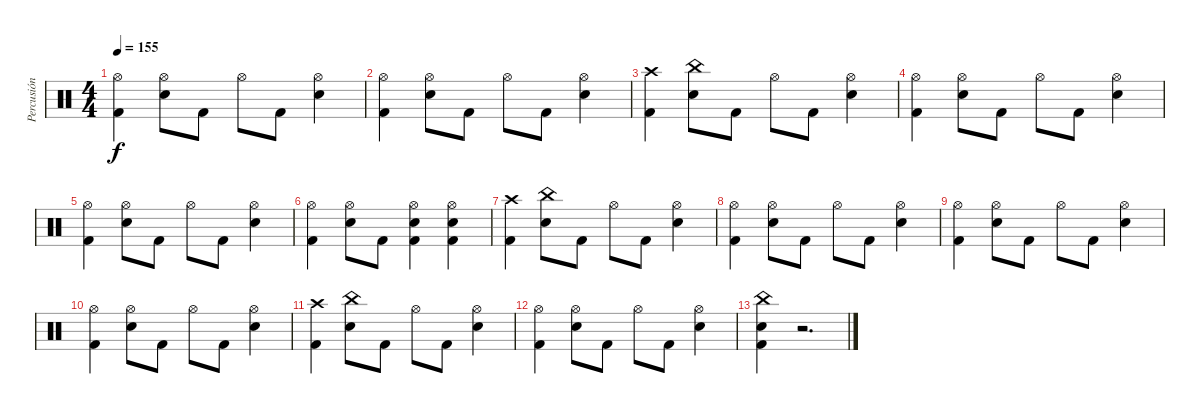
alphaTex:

\track ("Percusión" "Percusión") {instrument percussion}
\staff {score}
\articulation defaults
\ts (4 4)
\tempo 155
\clef neutral
\ks c
("Hi-Hat (open)" "Kick (hit) 2").4{dy f} ("Hi-Hat (open)" "Electric Snare (hit)").8 "Kick (hit) 2".8 "Hi-Hat (open)".8 "Kick (hit) 2".8 ("Hi-Hat (open)" "Electric Snare (hit)").4 |
("Hi-Hat (open)" "Kick (hit) 2").4 ("Hi-Hat (open)" "Electric Snare (hit)").8 "Kick (hit) 2".8 "Hi-Hat (open)".8 "Kick (hit) 2".8 ("Hi-Hat (open)" "Electric Snare (hit)").4 |
("Crash high (hit)" "Kick (hit) 2").4 ("China (hit)" "Electric Snare (hit)").8 "Kick (hit) 2".8 "Hi-Hat (open)".8 "Kick (hit) 2".8 ("Hi-Hat (open)" "Electric Snare (hit)").4 |
("Hi-Hat (open)" "Kick (hit) 2").4 ("Hi-Hat (open)" "Electric Snare (hit)").8 "Kick (hit) 2".8 "Hi-Hat (open)".8 "Kick (hit) 2".8 ("Hi-Hat (open)" "Electric Snare (hit)").4 |
("Hi-Hat (open)" "Kick (hit) 2").4 ("Hi-Hat (open)" "Electric Snare (hit)").8 "Kick (hit) 2".8 "Hi-Hat (open)".8 "Kick (hit) 2".8 ("Hi-Hat (open)" "Electric Snare (hit)").4 |
("Hi-Hat (open)" "Kick (hit) 2").4 ("Hi-Hat (open)" "Electric Snare (hit)").8 "Kick (hit) 2".8 ("Hi-Hat (open)" "Electric Snare (hit)" "Kick (hit) 2").4 ("Hi-Hat (open)" "Electric Snare (hit)" "Kick (hit) 2").4 |
("Crash high (hit)" "Kick (hit) 2").4 ("China (hit)" "Electric Snare (hit)").8 "Kick (hit) 2".8 "Hi-Hat (open)".8 "Kick (hit) 2".8 ("Hi-Hat (open)" "Electric Snare (hit)").4 |
("Hi-Hat (open)" "Kick (hit) 2").4 ("Hi-Hat (open)" "Electric Snare (hit)").8 "Kick (hit) 2".8 "Hi-Hat (open)".8 "Kick (hit) 2".8 ("Hi-Hat (open)" "Electric Snare (hit)").4 |
("Hi-Hat (open)" "Kick (hit) 2").4 ("Hi-Hat (open)" "Electric Snare (hit)").8 "Kick (hit) 2".8 "Hi-Hat (open)".8 "Kick (hit) 2".8 ("Hi-Hat (open)" "Electric Snare (hit)").4 |
("Hi-Hat (open)" "Kick (hit) 2").4 ("Hi-Hat (open)" "Electric Snare (hit)").8 "Kick (hit) 2".8 "Hi-Hat (open)".8 "Kick (hit) 2".8 ("Hi-Hat (open)" "Electric Snare (hit)").4 |
("Crash high (hit)" "Kick (hit) 2").4 ("China (hit)" "Electric Snare (hit)").8 "Kick (hit) 2".8 "Hi-Hat (open)".8 "Kick (hit) 2".8 ("Hi-Hat (open)" "Electric Snare (hit)").4 |
("Hi-Hat (open)" "Kick (hit) 2").4 ("Hi-Hat (open)" "Electric Snare (hit)").8 "Kick (hit) 2".8 "Hi-Hat (open)".8 "Kick (hit) 2".8 ("Hi-Hat (open)" "Electric Snare (hit)").4 |
("China (hit)" "Electric Snare (hit)" "Kick (hit) 2").4 r.2{d}
